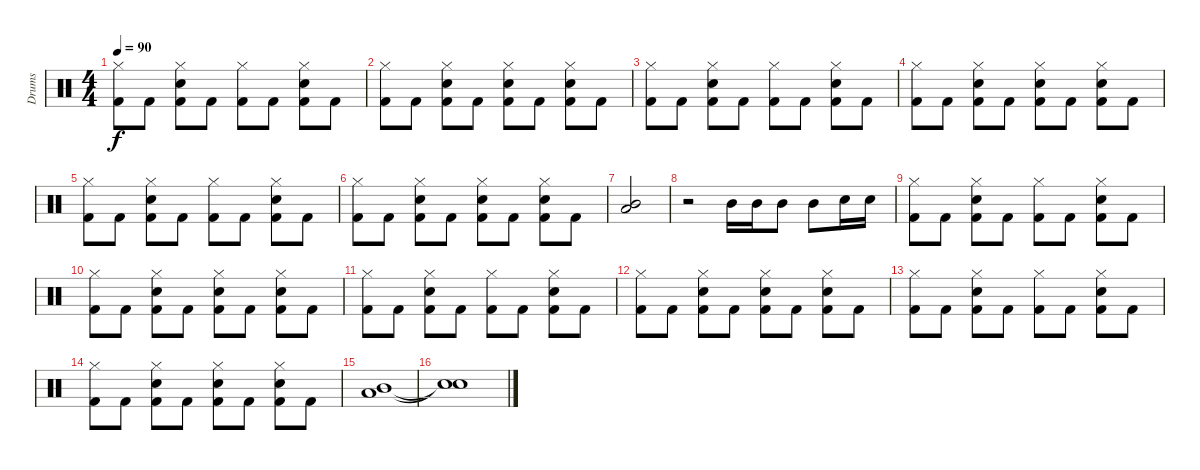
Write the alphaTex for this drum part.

\track ("Drums" "Drums") {instrument percussion}
\staff {score}
\articulation defaults
\ts (4 4)
\tempo 90
\clef neutral
\ks c
("Hi-Hat (closed)" "Kick (hit) 2").8{dy f} "Kick (hit) 2".8 ("Hi-Hat (closed)" "Kick (hit) 2" "Snare (hit) 2").8 "Kick (hit) 2".8 ("Hi-Hat (closed)" "Kick (hit) 2").8 "Kick (hit) 2".8 ("Hi-Hat (closed)" "Kick (hit) 2" "Snare (hit) 2").8 "Kick (hit) 2".8 |
("Hi-Hat (closed)" "Kick (hit) 2").8 "Kick (hit) 2".8 ("Hi-Hat (closed)" "Kick (hit) 2" "Snare (hit) 2").8 "Kick (hit) 2".8 ("Hi-Hat (closed)" "Kick (hit) 2" "Snare (hit) 2").8 "Kick (hit) 2".8 ("Hi-Hat (closed)" "Kick (hit) 2" "Snare (hit) 2").8 "Kick (hit) 2".8 |
("Hi-Hat (closed)" "Kick (hit) 2").8 "Kick (hit) 2".8 ("Hi-Hat (closed)" "Kick (hit) 2" "Snare (hit) 2").8 "Kick (hit) 2".8 ("Hi-Hat (closed)" "Kick (hit) 2").8 "Kick (hit) 2".8 ("Hi-Hat (closed)" "Kick (hit) 2" "Snare (hit) 2").8 "Kick (hit) 2".8 |
("Hi-Hat (closed)" "Kick (hit) 2").8 "Kick (hit) 2".8 ("Hi-Hat (closed)" "Kick (hit) 2" "Snare (hit) 2").8 "Kick (hit) 2".8 ("Hi-Hat (closed)" "Kick (hit) 2" "Snare (hit) 2").8 "Kick (hit) 2".8 ("Hi-Hat (closed)" "Kick (hit) 2" "Snare (hit) 2").8 "Kick (hit) 2".8 |
("Hi-Hat (closed)" "Kick (hit) 2").8 "Kick (hit) 2".8 ("Hi-Hat (closed)" "Kick (hit) 2" "Snare (hit) 2").8 "Kick (hit) 2".8 ("Hi-Hat (closed)" "Kick (hit) 2").8 "Kick (hit) 2".8 ("Hi-Hat (closed)" "Kick (hit) 2" "Snare (hit) 2").8 "Kick (hit) 2".8 |
("Hi-Hat (closed)" "Kick (hit) 2").8 "Kick (hit) 2".8 ("Hi-Hat (closed)" "Kick (hit) 2" "Snare (hit) 2").8 "Kick (hit) 2".8 ("Hi-Hat (closed)" "Kick (hit) 2" "Snare (hit) 2").8 "Kick (hit) 2".8 ("Hi-Hat (closed)" "Kick (hit) 2" "Snare (hit) 2").8 "Kick (hit) 2".8 |
("Mid Tom (hit)" "Low Tom (hit)").2 |
r.2 "Mid Tom (hit)".16 "Mid Tom (hit)".16 "Mid Tom (hit)".8 "Mid Tom (hit)".8 "Snare (hit) 2".16 "Snare (hit) 2".16 |
("Hi-Hat (closed)" "Kick (hit) 2").8 "Kick (hit) 2".8 ("Hi-Hat (closed)" "Kick (hit) 2" "Snare (hit) 2").8 "Kick (hit) 2".8 ("Hi-Hat (closed)" "Kick (hit) 2").8 "Kick (hit) 2".8 ("Hi-Hat (closed)" "Kick (hit) 2" "Snare (hit) 2").8 "Kick (hit) 2".8 |
("Hi-Hat (closed)" "Kick (hit) 2").8 "Kick (hit) 2".8 ("Hi-Hat (closed)" "Kick (hit) 2" "Snare (hit) 2").8 "Kick (hit) 2".8 ("Hi-Hat (closed)" "Kick (hit) 2" "Snare (hit) 2").8 "Kick (hit) 2".8 ("Hi-Hat (closed)" "Kick (hit) 2" "Snare (hit) 2").8 "Kick (hit) 2".8 |
("Hi-Hat (closed)" "Kick (hit) 2").8 "Kick (hit) 2".8 ("Hi-Hat (closed)" "Kick (hit) 2" "Snare (hit) 2").8 "Kick (hit) 2".8 ("Hi-Hat (closed)" "Kick (hit) 2").8 "Kick (hit) 2".8 ("Hi-Hat (closed)" "Kick (hit) 2" "Snare (hit) 2").8 "Kick (hit) 2".8 |
("Hi-Hat (closed)" "Kick (hit) 2").8 "Kick (hit) 2".8 ("Hi-Hat (closed)" "Kick (hit) 2" "Snare (hit) 2").8 "Kick (hit) 2".8 ("Hi-Hat (closed)" "Kick (hit) 2" "Snare (hit) 2").8 "Kick (hit) 2".8 ("Hi-Hat (closed)" "Kick (hit) 2" "Snare (hit) 2").8 "Kick (hit) 2".8 |
("Hi-Hat (closed)" "Kick (hit) 2").8 "Kick (hit) 2".8 ("Hi-Hat (closed)" "Kick (hit) 2" "Snare (hit) 2").8 "Kick (hit) 2".8 ("Hi-Hat (closed)" "Kick (hit) 2").8 "Kick (hit) 2".8 ("Hi-Hat (closed)" "Kick (hit) 2" "Snare (hit) 2").8 "Kick (hit) 2".8 |
("Hi-Hat (closed)" "Kick (hit) 2").8 "Kick (hit) 2".8 ("Hi-Hat (closed)" "Kick (hit) 2" "Snare (hit) 2").8 "Kick (hit) 2".8 ("Hi-Hat (closed)" "Kick (hit) 2" "Snare (hit) 2").8 "Kick (hit) 2".8 ("Hi-Hat (closed)" "Kick (hit) 2" "Snare (hit) 2").8 "Kick (hit) 2".8 |
("Mid Tom (hit)" "Low Tom (hit)").1 |
("Snare (hit)"{t} "Snare (hit)"{t}).1
